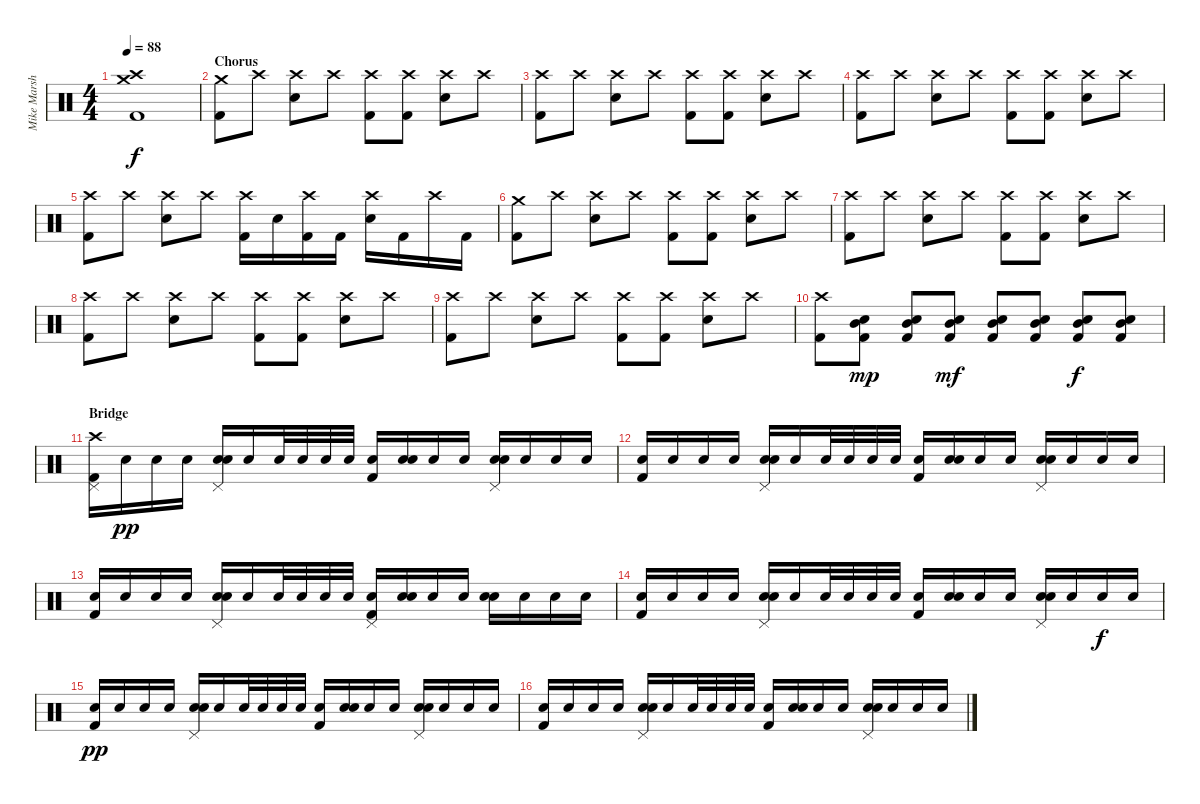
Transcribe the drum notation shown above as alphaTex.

\track ("Mike Marsh" "Mike Marsh") {instrument percussion}
\staff {score}
\articulation defaults
\ts (4 4)
\tempo 88
\clef neutral
\ks c
("Crash high (hit)" "Crash medium (hit)" "Kick (hit) 2").1{dy f} |
\section ("" "Chorus")
("Crash medium (hit)" "Kick (hit) 2").8 "Crash high (hit)".8 ("Crash high (hit)" "Snare (hit) 2").8 "Crash high (hit)".8 ("Crash high (hit)" "Kick (hit) 2").8 ("Crash high (hit)" "Kick (hit) 2").8 ("Crash high (hit)" "Snare (hit) 2").8 "Crash high (hit)".8 |
("Crash high (hit)" "Kick (hit) 2").8 "Crash high (hit)".8 ("Crash high (hit)" "Snare (hit) 2").8 "Crash high (hit)".8 ("Crash high (hit)" "Kick (hit) 2").8 ("Crash high (hit)" "Kick (hit) 2").8 ("Crash high (hit)" "Snare (hit) 2").8 "Crash high (hit)".8 |
("Crash high (hit)" "Kick (hit) 2").8 "Crash high (hit)".8 ("Crash high (hit)" "Snare (hit) 2").8 "Crash high (hit)".8 ("Crash high (hit)" "Kick (hit) 2").8 ("Crash high (hit)" "Kick (hit) 2").8 ("Crash high (hit)" "Snare (hit) 2").8 "Crash high (hit)".8 |
("Crash high (hit)" "Kick (hit) 2").8 "Crash high (hit)".8 ("Crash high (hit)" "Snare (hit) 2").8 "Crash high (hit)".8 ("Crash high (hit)" "Kick (hit) 2").16 "Snare (hit) 2".16 ("Crash high (hit)" "Kick (hit) 2").16 "Kick (hit) 2".16 ("Crash high (hit)" "Snare (hit) 2").16 "Kick (hit) 2".16 "Crash high (hit)".16 "Kick (hit) 2".16 |
("Crash medium (hit)" "Kick (hit) 2").8 "Crash high (hit)".8 ("Crash high (hit)" "Snare (hit) 2").8 "Crash high (hit)".8 ("Crash high (hit)" "Kick (hit) 2").8 ("Crash high (hit)" "Kick (hit) 2").8 ("Crash high (hit)" "Snare (hit) 2").8 "Crash high (hit)".8 |
("Crash high (hit)" "Kick (hit) 2").8 "Crash high (hit)".8 ("Crash high (hit)" "Snare (hit) 2").8 "Crash high (hit)".8 ("Crash high (hit)" "Kick (hit) 2").8 ("Crash high (hit)" "Kick (hit) 2").8 ("Crash high (hit)" "Snare (hit) 2").8 "Crash high (hit)".8 |
("Crash high (hit)" "Kick (hit) 2").8 "Crash high (hit)".8 ("Crash high (hit)" "Snare (hit) 2").8 "Crash high (hit)".8 ("Crash high (hit)" "Kick (hit) 2").8 ("Crash high (hit)" "Kick (hit) 2").8 ("Crash high (hit)" "Snare (hit) 2").8 "Crash high (hit)".8 |
("Crash high (hit)" "Kick (hit) 2").8 "Crash high (hit)".8 ("Crash high (hit)" "Snare (hit) 2").8 "Crash high (hit)".8 ("Crash high (hit)" "Kick (hit) 2").8 ("Crash high (hit)" "Kick (hit) 2").8 ("Crash high (hit)" "Snare (hit) 2").8 "Crash high (hit)".8 |
("Crash high (hit)" "Kick (hit) 2").8 ("Snare (hit) 2" "Mid Tom (hit)" "Kick (hit) 2").8{dy mp} ("Snare (hit) 2" "Mid Tom (hit)" "Kick (hit) 2").8 ("Snare (hit) 2" "Mid Tom (hit)" "Kick (hit) 2").8{dy mf} ("Snare (hit) 2" "Mid Tom (hit)" "Kick (hit) 2").8 ("Snare (hit) 2" "Mid Tom (hit)" "Kick (hit) 2").8 ("Snare (hit) 2" "Mid Tom (hit)" "Kick (hit) 2").8{dy f} ("Snare (hit) 2" "Mid Tom (hit)" "Kick (hit) 2").8 |
\section ("" "Bridge")
("Crash high (hit)" "Pedal Hi-Hat (hit)" "Kick (hit) 2").16 "Snare (hit) 2".16{dy pp} "Snare (hit) 2".16 "Snare (hit) 2".16 ("Pedal Hi-Hat (hit)" "Snare (hit) 2" "Snare (hit) 2").16 "Snare (hit) 2".16 "Snare (hit) 2".32 "Snare (hit) 2".32 "Snare (hit) 2".32 "Snare (hit) 2".32 ("Snare (hit) 2" "Kick (hit) 2").16 ("Snare (hit) 2" "Snare (hit) 2").16 "Snare (hit) 2".16 "Snare (hit) 2".16 ("Pedal Hi-Hat (hit)" "Snare (hit) 2" "Snare (hit) 2").16 "Snare (hit) 2".16 "Snare (hit) 2".16 "Snare (hit) 2".16 |
("Snare (hit) 2" "Kick (hit) 2").16 "Snare (hit) 2".16 "Snare (hit) 2".16 "Snare (hit) 2".16 ("Pedal Hi-Hat (hit)" "Snare (hit) 2" "Snare (hit) 2").16 "Snare (hit) 2".16 "Snare (hit) 2".32 "Snare (hit) 2".32 "Snare (hit) 2".32 "Snare (hit) 2".32 ("Snare (hit) 2" "Kick (hit) 2").16 ("Snare (hit) 2" "Snare (hit) 2").16 "Snare (hit) 2".16 "Snare (hit) 2".16 ("Pedal Hi-Hat (hit)" "Snare (hit) 2" "Snare (hit) 2").16 "Snare (hit) 2".16 "Snare (hit) 2".16 "Snare (hit) 2".16 |
("Snare (hit) 2" "Kick (hit) 2").16 "Snare (hit) 2".16 "Snare (hit) 2".16 "Snare (hit) 2".16 ("Pedal Hi-Hat (hit)" "Snare (hit) 2" "Snare (hit) 2").16 "Snare (hit) 2".16 "Snare (hit) 2".32 "Snare (hit) 2".32 "Snare (hit) 2".32 "Snare (hit) 2".32 ("Pedal Hi-Hat (hit)" "Snare (hit) 2" "Kick (hit) 2").16 ("Snare (hit) 2" "Snare (hit) 2").16 "Snare (hit) 2".16 "Snare (hit) 2".16 ("Snare (hit) 2" "Snare (hit) 2").16 "Snare (hit) 2".16 "Snare (hit) 2".16 "Snare (hit) 2".16 |
("Snare (hit) 2" "Kick (hit) 2").16 "Snare (hit) 2".16 "Snare (hit) 2".16 "Snare (hit) 2".16 ("Pedal Hi-Hat (hit)" "Snare (hit) 2" "Snare (hit) 2").16 "Snare (hit) 2".16 "Snare (hit) 2".32 "Snare (hit) 2".32 "Snare (hit) 2".32 "Snare (hit) 2".32 ("Snare (hit) 2" "Kick (hit) 2").16 ("Snare (hit) 2" "Snare (hit) 2").16 "Snare (hit) 2".16 "Snare (hit) 2".16 ("Pedal Hi-Hat (hit)" "Snare (hit) 2" "Snare (hit) 2").16 "Snare (hit) 2".16 "Snare (hit) 2".16{dy f} "Snare (hit) 2".16 |
("Snare (hit) 2" "Kick (hit) 2").16{dy pp} "Snare (hit) 2".16 "Snare (hit) 2".16 "Snare (hit) 2".16 ("Pedal Hi-Hat (hit)" "Snare (hit) 2" "Snare (hit) 2").16 "Snare (hit) 2".16 "Snare (hit) 2".32 "Snare (hit) 2".32 "Snare (hit) 2".32 "Snare (hit) 2".32 ("Snare (hit) 2" "Kick (hit) 2").16 ("Snare (hit) 2" "Snare (hit) 2").16 "Snare (hit) 2".16 "Snare (hit) 2".16 ("Pedal Hi-Hat (hit)" "Snare (hit) 2" "Snare (hit) 2").16 "Snare (hit) 2".16 "Snare (hit) 2".16 "Snare (hit) 2".16 |
("Snare (hit) 2" "Kick (hit) 2").16 "Snare (hit) 2".16 "Snare (hit) 2".16 "Snare (hit) 2".16 ("Pedal Hi-Hat (hit)" "Snare (hit) 2" "Snare (hit) 2").16 "Snare (hit) 2".16 "Snare (hit) 2".32 "Snare (hit) 2".32 "Snare (hit) 2".32 "Snare (hit) 2".32 ("Snare (hit) 2" "Kick (hit) 2").16 ("Snare (hit) 2" "Snare (hit) 2").16 "Snare (hit) 2".16 "Snare (hit) 2".16 ("Pedal Hi-Hat (hit)" "Snare (hit) 2" "Snare (hit) 2").16 "Snare (hit) 2".16 "Snare (hit) 2".16 "Snare (hit) 2".16
